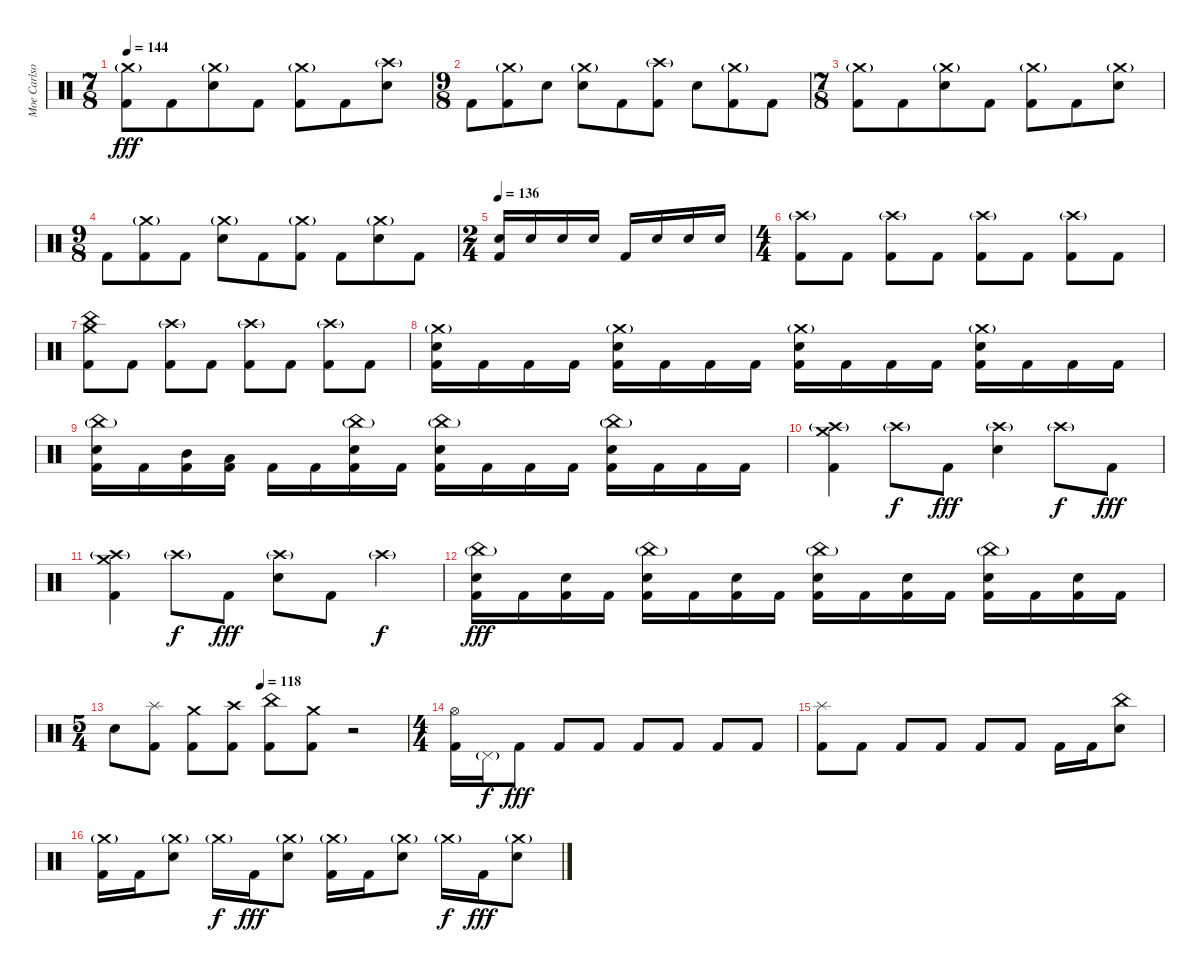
\track ("Moe Carlson - Percussion" "Moe Carlso") {instrument percussion}
\staff {score}
\articulation defaults
\ts (7 8)
\tempo 144
\clef neutral
\ks c
("Crash medium (hit)"{g} "Kick (hit) 2").8{dy fff} "Kick (hit) 2".8 ("Crash medium (hit)"{g} "Electric Snare (hit)").8 "Kick (hit) 2".8 ("Crash medium (hit)"{g} "Kick (hit) 2").8 "Kick (hit) 2".8 ("Crash high (hit)"{g} "Electric Snare (hit)").8 |
\ts (9 8)
"Kick (hit) 2".8 ("Crash medium (hit)"{g} "Kick (hit) 2").8 "Electric Snare (hit)".8 ("Crash medium (hit)"{g} "Electric Snare (hit)").8 "Kick (hit) 2".8 ("Crash high (hit)"{g} "Kick (hit) 2").8 "Electric Snare (hit)".8 ("Crash medium (hit)"{g} "Kick (hit) 2").8 "Kick (hit) 2".8 |
\ts (7 8)
("Crash medium (hit)"{g} "Kick (hit) 2").8 "Kick (hit) 2".8 ("Crash medium (hit)"{g} "Electric Snare (hit)").8 "Kick (hit) 2".8 ("Crash medium (hit)"{g} "Kick (hit) 2").8 "Kick (hit) 2".8 ("Crash medium (hit)"{g} "Electric Snare (hit)").8 |
\ts (9 8)
"Kick (hit) 2".8 ("Crash medium (hit)"{g} "Kick (hit) 2").8 "Kick (hit) 2".8 ("Crash medium (hit)"{g} "Electric Snare (hit)").8 "Kick (hit) 2".8 ("Crash medium (hit)"{g} "Kick (hit) 2").8 "Kick (hit) 2".8 ("Crash medium (hit)"{g} "Electric Snare (hit)").8 "Kick (hit) 2".8 |
\ts (2 4)
\tempo 136
("Electric Snare (hit)" "Kick (hit) 2").16 "Electric Snare (hit)".16 "Electric Snare (hit)".16 "Electric Snare (hit)".16 "Kick (hit) 2".16 "Electric Snare (hit)".16 "Electric Snare (hit)".16 "Electric Snare (hit)".16 |
\ts (4 4)
("Crash high (hit)"{g} "Kick (hit) 2").8 "Kick (hit) 2".8 ("Crash high (hit)"{g} "Kick (hit) 2").8 "Kick (hit) 2".8 ("Crash high (hit)"{g} "Kick (hit) 2").8 "Kick (hit) 2".8 ("Crash high (hit)"{g} "Kick (hit) 2").8 "Kick (hit) 2".8 |
("Crash medium (hit)" "China (hit)" "Kick (hit) 2").8 "Kick (hit) 2".8 ("Crash high (hit)"{g} "Kick (hit) 2").8 "Kick (hit) 2".8 ("Crash high (hit)"{g} "Kick (hit) 2").8 "Kick (hit) 2".8 ("Crash high (hit)"{g} "Kick (hit) 2").8 "Kick (hit) 2".8 |
("Crash medium (hit)"{g} "Electric Snare (hit)" "Kick (hit) 2").16 "Kick (hit) 2".16 "Kick (hit) 2".16 "Kick (hit) 2".16 ("Crash medium (hit)"{g} "Electric Snare (hit)" "Kick (hit) 2").16 "Kick (hit) 2".16 "Kick (hit) 2".16 "Kick (hit) 2".16 ("Crash medium (hit)"{g} "Electric Snare (hit)" "Kick (hit) 2").16 "Kick (hit) 2".16 "Kick (hit) 2".16 "Kick (hit) 2".16 ("Crash medium (hit)"{g} "Electric Snare (hit)" "Kick (hit) 2").16 "Kick (hit) 2".16 "Kick (hit) 2".16 "Kick (hit) 2".16 |
("China (hit)"{g} "Electric Snare (hit)" "Kick (hit) 2").16 "Kick (hit) 2".16 ("Mid Tom (hit)" "Kick (hit) 2").16 ("Low Tom (hit)" "Kick (hit) 2").16 "Kick (hit) 2".16 "Kick (hit) 2".16 ("China (hit)"{g} "Electric Snare (hit)" "Kick (hit) 2").16 "Kick (hit) 2".16 ("China (hit)"{g} "Electric Snare (hit)" "Kick (hit) 2").16 "Kick (hit) 2".16 "Kick (hit) 2".16 "Kick (hit) 2".16 ("China (hit)"{g} "Electric Snare (hit)" "Kick (hit) 2").16 "Kick (hit) 2".16 "Kick (hit) 2".16 "Kick (hit) 2".16 |
("Crash high (hit)"{g} "Crash medium (hit)" "Kick (hit) 2").4 "Crash high (hit)"{g}.8{dy f} "Kick (hit) 2".8{dy fff} ("Crash high (hit)"{g} "Electric Snare (hit)").4 "Crash high (hit)"{g}.8{dy f} "Kick (hit) 2".8{dy fff} |
("Crash high (hit)"{g} "Crash medium (hit)" "Kick (hit) 2").4 "Crash high (hit)"{g}.8{dy f} "Kick (hit) 2".8{dy fff} ("Crash high (hit)"{g} "Electric Snare (hit)").8 "Kick (hit) 2".8 "Crash high (hit)"{g}.4{dy f} |
("China (hit)"{g} "Electric Snare (hit)" "Kick (hit) 2").16{dy fff} "Kick (hit) 2".16 ("Electric Snare (hit)" "Kick (hit) 2").16 "Kick (hit) 2".16 ("China (hit)"{g} "Electric Snare (hit)" "Kick (hit) 2").16 "Kick (hit) 2".16 ("Electric Snare (hit)" "Kick (hit) 2").16 "Kick (hit) 2".16 ("China (hit)"{g} "Electric Snare (hit)" "Kick (hit) 2").16 "Kick (hit) 2".16 ("Electric Snare (hit)" "Kick (hit) 2").16 "Kick (hit) 2".16 ("China (hit)"{g} "Electric Snare (hit)" "Kick (hit) 2").16 "Kick (hit) 2".16 ("Electric Snare (hit)" "Kick (hit) 2").16 "Kick (hit) 2".16 |
\ts (5 4)
\tempo (118 0.5)
"Electric Snare (hit)".8 ("Splash (hit)" "Kick (hit) 2").8 ("Crash medium (hit)" "Kick (hit) 2").8 ("Crash high (hit)" "Kick (hit) 2").8 ("China (hit)" "Kick (hit) 2").8 ("Crash medium (hit)" "Kick (hit) 2").8 r.2 |
\ts (4 4)
("Hi-Hat (open)" "Kick (hit) 2").16 "Pedal Hi-Hat (hit)"{g}.16{dy f} "Kick (hit) 2".8{dy fff} "Kick (hit) 2".8 "Kick (hit) 2".8 "Kick (hit) 2".8 "Kick (hit) 2".8 "Kick (hit) 2".8 "Kick (hit) 2".8 |
("Splash (hit)" "Kick (hit) 2").8 "Kick (hit) 2".8 "Kick (hit) 2".8 "Kick (hit) 2".8 "Kick (hit) 2".8 "Kick (hit) 2".8 "Kick (hit) 2".16 "Kick (hit) 2".16 ("China (hit)" "Electric Snare (hit)").8 |
("Crash medium (hit)"{g} "Kick (hit) 2").16 "Kick (hit) 2".16 ("Crash medium (hit)"{g} "Electric Snare (hit)").8 "Crash medium (hit)"{g}.16{dy f} "Kick (hit) 2".16{dy fff} ("Crash medium (hit)"{g} "Electric Snare (hit)").8 ("Crash medium (hit)"{g} "Kick (hit) 2").16 "Kick (hit) 2".16 ("Crash medium (hit)"{g} "Electric Snare (hit)").8 "Crash medium (hit)"{g}.16{dy f} "Kick (hit) 2".16{dy fff} ("Crash medium (hit)"{g} "Electric Snare (hit)").8
